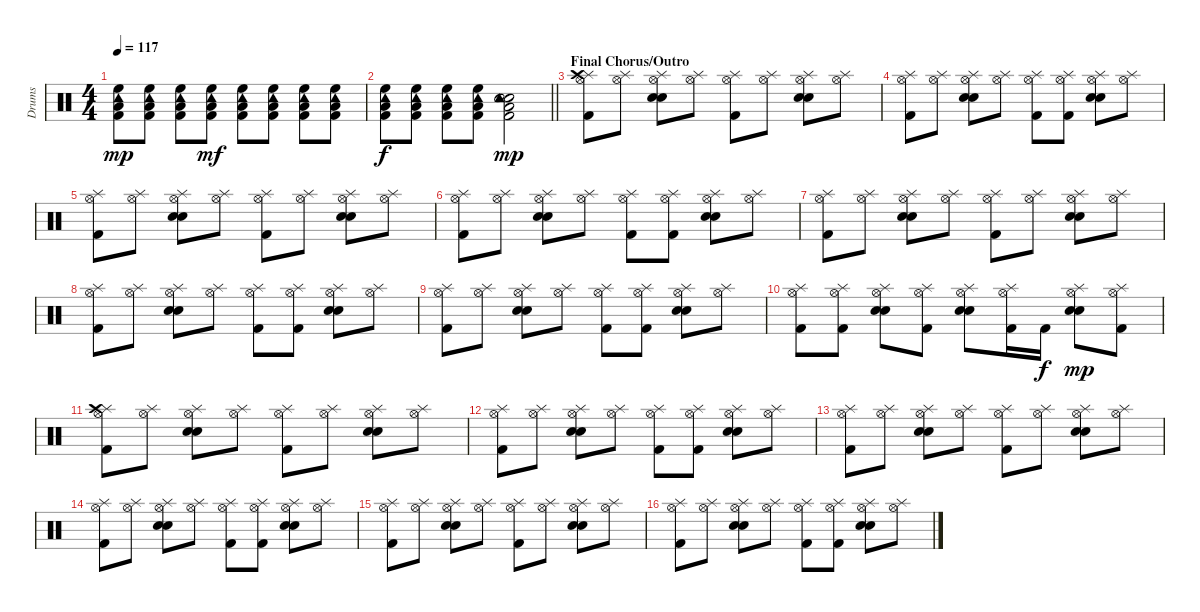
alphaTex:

\track ("Drums" "Drums") {instrument percussion}
\staff {score}
\articulation defaults
\ts (4 4)
\tempo 117
\clef neutral
\ks c
("High Floor Tom (hit)" "Tambourine (hit)" "Low Tom (hit)" "Kick (hit) 2").8{dy mp} ("High Floor Tom (hit)" "Tambourine (hit)" "Low Tom (hit)" "Kick (hit) 2").8 ("High Floor Tom (hit)" "Tambourine (hit)" "Low Tom (hit)" "Kick (hit) 2").8 ("High Floor Tom (hit)" "Tambourine (hit)" "Low Tom (hit)" "Kick (hit) 2").8{dy mf} ("High Floor Tom (hit)" "Tambourine (hit)" "Low Tom (hit)" "Kick (hit) 2").8 ("High Floor Tom (hit)" "Tambourine (hit)" "Low Tom (hit)" "Kick (hit) 2").8 ("High Floor Tom (hit)" "Tambourine (hit)" "Low Tom (hit)" "Kick (hit) 2").8 ("High Floor Tom (hit)" "Tambourine (hit)" "Low Tom (hit)" "Kick (hit) 2").8 |
\barLineRight lightlight
("High Floor Tom (hit)" "Tambourine (hit)" "Low Tom (hit)" "Kick (hit) 2").8{dy f} ("High Floor Tom (hit)" "Tambourine (hit)" "Low Tom (hit)" "Kick (hit) 2").8 ("High Floor Tom (hit)" "Tambourine (hit)" "Low Tom (hit)" "Kick (hit) 2").8 ("High Floor Tom (hit)" "Tambourine (hit)" "Low Tom (hit)" "Kick (hit) 2").8 ("Snare (hit) 2" "Tambourine (hit)" "Low Tom (hit)" "Snare (hit) 2" "Kick (hit) 2").2{dy mp} |
\section ("" "Final Chorus/Outro")
("Splash (hit)" "Crash high (hit)" "Hi-Hat (open)" "Kick (hit) 2").8 ("Splash (hit)" "Hi-Hat (open)").8 ("Splash (hit)" "Hi-Hat (open)" "Snare (hit) 2" "Snare (hit) 2").8 ("Splash (hit)" "Hi-Hat (open)").8 ("Splash (hit)" "Hi-Hat (open)" "Kick (hit) 2").8 ("Splash (hit)" "Hi-Hat (open)").8 ("Splash (hit)" "Hi-Hat (open)" "Snare (hit) 2" "Snare (hit) 2").8 ("Splash (hit)" "Hi-Hat (open)").8 |
("Splash (hit)" "Hi-Hat (open)" "Kick (hit) 2").8 ("Splash (hit)" "Hi-Hat (open)").8 ("Splash (hit)" "Hi-Hat (open)" "Snare (hit) 2" "Snare (hit) 2").8 ("Splash (hit)" "Hi-Hat (open)").8 ("Splash (hit)" "Hi-Hat (open)" "Kick (hit) 2").8 ("Splash (hit)" "Hi-Hat (open)" "Kick (hit) 2").8 ("Splash (hit)" "Hi-Hat (open)" "Snare (hit) 2" "Snare (hit) 2").8 ("Splash (hit)" "Hi-Hat (open)").8 |
("Splash (hit)" "Hi-Hat (open)" "Kick (hit) 2").8 ("Splash (hit)" "Hi-Hat (open)").8 ("Splash (hit)" "Hi-Hat (open)" "Snare (hit) 2" "Snare (hit) 2").8 ("Splash (hit)" "Hi-Hat (open)").8 ("Splash (hit)" "Hi-Hat (open)" "Kick (hit) 2").8 ("Splash (hit)" "Hi-Hat (open)").8 ("Splash (hit)" "Hi-Hat (open)" "Snare (hit) 2" "Snare (hit) 2").8 ("Splash (hit)" "Hi-Hat (open)").8 |
("Splash (hit)" "Hi-Hat (open)" "Kick (hit) 2").8 ("Splash (hit)" "Hi-Hat (open)").8 ("Splash (hit)" "Hi-Hat (open)" "Snare (hit) 2" "Snare (hit) 2").8 ("Splash (hit)" "Hi-Hat (open)").8 ("Splash (hit)" "Hi-Hat (open)" "Kick (hit) 2").8 ("Splash (hit)" "Hi-Hat (open)" "Kick (hit) 2").8 ("Splash (hit)" "Hi-Hat (open)" "Snare (hit) 2" "Snare (hit) 2").8 ("Splash (hit)" "Hi-Hat (open)").8 |
("Splash (hit)" "Hi-Hat (open)" "Kick (hit) 2").8 ("Splash (hit)" "Hi-Hat (open)").8 ("Splash (hit)" "Hi-Hat (open)" "Snare (hit) 2" "Snare (hit) 2").8 ("Splash (hit)" "Hi-Hat (open)").8 ("Splash (hit)" "Hi-Hat (open)" "Kick (hit) 2").8 ("Splash (hit)" "Hi-Hat (open)").8 ("Splash (hit)" "Hi-Hat (open)" "Snare (hit) 2" "Snare (hit) 2").8 ("Splash (hit)" "Hi-Hat (open)").8 |
("Splash (hit)" "Hi-Hat (open)" "Kick (hit) 2").8 ("Splash (hit)" "Hi-Hat (open)").8 ("Splash (hit)" "Hi-Hat (open)" "Snare (hit) 2" "Snare (hit) 2").8 ("Splash (hit)" "Hi-Hat (open)").8 ("Splash (hit)" "Hi-Hat (open)" "Kick (hit) 2").8 ("Splash (hit)" "Hi-Hat (open)" "Kick (hit) 2").8 ("Splash (hit)" "Hi-Hat (open)" "Snare (hit) 2" "Snare (hit) 2").8 ("Splash (hit)" "Hi-Hat (open)").8 |
("Splash (hit)" "Hi-Hat (open)" "Kick (hit) 2").8 ("Splash (hit)" "Hi-Hat (open)").8 ("Splash (hit)" "Hi-Hat (open)" "Snare (hit) 2" "Snare (hit) 2").8 ("Splash (hit)" "Hi-Hat (open)").8 ("Splash (hit)" "Hi-Hat (open)" "Kick (hit) 2").8 ("Splash (hit)" "Hi-Hat (open)" "Kick (hit) 2").8 ("Splash (hit)" "Hi-Hat (open)" "Snare (hit) 2" "Snare (hit) 2").8 ("Splash (hit)" "Hi-Hat (open)").8 |
("Splash (hit)" "Hi-Hat (open)" "Kick (hit) 2").8 ("Splash (hit)" "Hi-Hat (open)" "Kick (hit) 2").8 ("Splash (hit)" "Hi-Hat (open)" "Snare (hit) 2" "Snare (hit) 2").8 ("Splash (hit)" "Hi-Hat (open)" "Kick (hit) 2").8 ("Splash (hit)" "Hi-Hat (open)" "Snare (hit) 2" "Snare (hit) 2").8 ("Splash (hit)" "Hi-Hat (open)" "Kick (hit) 2").16 "Kick (hit) 2".16{dy f} ("Splash (hit)" "Hi-Hat (open)" "Snare (hit) 2" "Snare (hit) 2").8{dy mp} ("Splash (hit)" "Hi-Hat (open)" "Kick (hit) 2").8 |
("Splash (hit)" "Crash high (hit)" "Hi-Hat (open)" "Kick (hit) 2").8 ("Splash (hit)" "Hi-Hat (open)").8 ("Splash (hit)" "Hi-Hat (open)" "Snare (hit) 2" "Snare (hit) 2").8 ("Splash (hit)" "Hi-Hat (open)").8 ("Splash (hit)" "Hi-Hat (open)" "Kick (hit) 2").8 ("Splash (hit)" "Hi-Hat (open)").8 ("Splash (hit)" "Hi-Hat (open)" "Snare (hit) 2" "Snare (hit) 2").8 ("Splash (hit)" "Hi-Hat (open)").8 |
("Splash (hit)" "Hi-Hat (open)" "Kick (hit) 2").8 ("Splash (hit)" "Hi-Hat (open)").8 ("Splash (hit)" "Hi-Hat (open)" "Snare (hit) 2" "Snare (hit) 2").8 ("Splash (hit)" "Hi-Hat (open)").8 ("Splash (hit)" "Hi-Hat (open)" "Kick (hit) 2").8 ("Splash (hit)" "Hi-Hat (open)" "Kick (hit) 2").8 ("Splash (hit)" "Hi-Hat (open)" "Snare (hit) 2" "Snare (hit) 2").8 ("Splash (hit)" "Hi-Hat (open)").8 |
("Splash (hit)" "Hi-Hat (open)" "Kick (hit) 2").8 ("Splash (hit)" "Hi-Hat (open)").8 ("Splash (hit)" "Hi-Hat (open)" "Snare (hit) 2" "Snare (hit) 2").8 ("Splash (hit)" "Hi-Hat (open)").8 ("Splash (hit)" "Hi-Hat (open)" "Kick (hit) 2").8 ("Splash (hit)" "Hi-Hat (open)").8 ("Splash (hit)" "Hi-Hat (open)" "Snare (hit) 2" "Snare (hit) 2").8 ("Splash (hit)" "Hi-Hat (open)").8 |
("Splash (hit)" "Hi-Hat (open)" "Kick (hit) 2").8 ("Splash (hit)" "Hi-Hat (open)").8 ("Splash (hit)" "Hi-Hat (open)" "Snare (hit) 2" "Snare (hit) 2").8 ("Splash (hit)" "Hi-Hat (open)").8 ("Splash (hit)" "Hi-Hat (open)" "Kick (hit) 2").8 ("Splash (hit)" "Hi-Hat (open)" "Kick (hit) 2").8 ("Splash (hit)" "Hi-Hat (open)" "Snare (hit) 2" "Snare (hit) 2").8 ("Splash (hit)" "Hi-Hat (open)").8 |
("Splash (hit)" "Hi-Hat (open)" "Kick (hit) 2").8 ("Splash (hit)" "Hi-Hat (open)").8 ("Splash (hit)" "Hi-Hat (open)" "Snare (hit) 2" "Snare (hit) 2").8 ("Splash (hit)" "Hi-Hat (open)").8 ("Splash (hit)" "Hi-Hat (open)" "Kick (hit) 2").8 ("Splash (hit)" "Hi-Hat (open)").8 ("Splash (hit)" "Hi-Hat (open)" "Snare (hit) 2" "Snare (hit) 2").8 ("Splash (hit)" "Hi-Hat (open)").8 |
("Splash (hit)" "Hi-Hat (open)" "Kick (hit) 2").8 ("Splash (hit)" "Hi-Hat (open)").8 ("Splash (hit)" "Hi-Hat (open)" "Snare (hit) 2" "Snare (hit) 2").8 ("Splash (hit)" "Hi-Hat (open)").8 ("Splash (hit)" "Hi-Hat (open)" "Kick (hit) 2").8 ("Splash (hit)" "Hi-Hat (open)" "Kick (hit) 2").8 ("Splash (hit)" "Hi-Hat (open)" "Snare (hit) 2" "Snare (hit) 2").8 ("Splash (hit)" "Hi-Hat (open)").8
